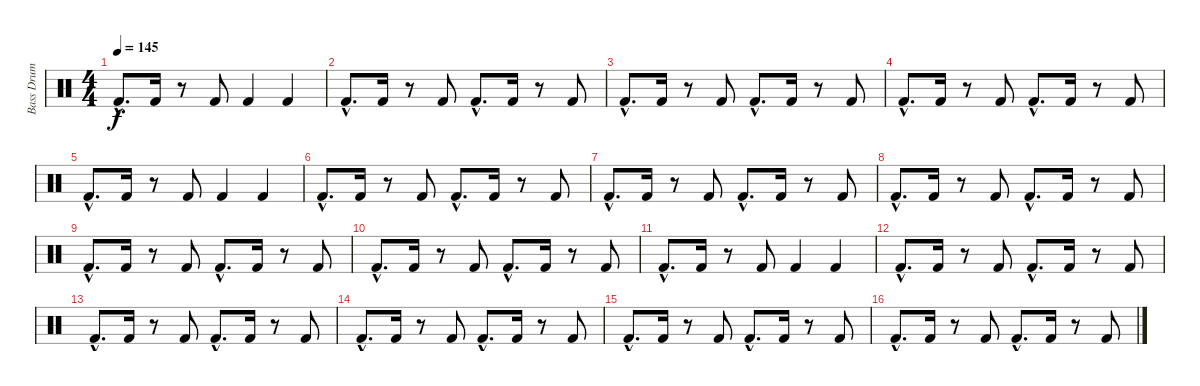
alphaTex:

\track ("Bass Drum" "Bass Drum") {instrument percussion}
\staff {score}
\articulation defaults
\ts (4 4)
\tempo 145
\clef neutral
\ks c "Kick (hit) 2"{hac}.8{d dy f} "Kick (hit) 2".16
r.8 "Kick (hit) 2".8 "Kick (hit) 2".4 "Kick (hit) 2".4 |
"Kick (hit) 2"{hac}.8{d} "Kick (hit) 2".16 r.8 "Kick (hit) 2".8 "Kick (hit) 2"{hac}.8{d} "Kick (hit) 2".16 r.8 "Kick (hit) 2".8 |
"Kick (hit) 2"{hac}.8{d} "Kick (hit) 2".16 r.8 "Kick (hit) 2".8 "Kick (hit) 2"{hac}.8{d} "Kick (hit) 2".16 r.8 "Kick (hit) 2".8 |
"Kick (hit) 2"{hac}.8{d} "Kick (hit) 2".16 r.8 "Kick (hit) 2".8 "Kick (hit) 2"{hac}.8{d} "Kick (hit) 2".16 r.8 "Kick (hit) 2".8 |
"Kick (hit) 2"{hac}.8{d} "Kick (hit) 2".16 r.8 "Kick (hit) 2".8 "Kick (hit) 2".4 "Kick (hit) 2".4 |
"Kick (hit) 2"{hac}.8{d} "Kick (hit) 2".16 r.8 "Kick (hit) 2".8 "Kick (hit) 2"{hac}.8{d} "Kick (hit) 2".16 r.8 "Kick (hit) 2".8 |
"Kick (hit) 2"{hac}.8{d} "Kick (hit) 2".16 r.8 "Kick (hit) 2".8 "Kick (hit) 2"{hac}.8{d} "Kick (hit) 2".16 r.8 "Kick (hit) 2".8 |
"Kick (hit) 2"{hac}.8{d} "Kick (hit) 2".16 r.8 "Kick (hit) 2".8 "Kick (hit) 2"{hac}.8{d} "Kick (hit) 2".16 r.8 "Kick (hit) 2".8 |
"Kick (hit) 2"{hac}.8{d} "Kick (hit) 2".16 r.8 "Kick (hit) 2".8 "Kick (hit) 2"{hac}.8{d} "Kick (hit) 2".16 r.8 "Kick (hit) 2".8 |
"Kick (hit) 2"{hac}.8{d} "Kick (hit) 2".16 r.8 "Kick (hit) 2".8 "Kick (hit) 2"{hac}.8{d} "Kick (hit) 2".16 r.8 "Kick (hit) 2".8 |
"Kick (hit) 2"{hac}.8{d} "Kick (hit) 2".16 r.8 "Kick (hit) 2".8 "Kick (hit) 2".4 "Kick (hit) 2".4 |
"Kick (hit) 2"{hac}.8{d} "Kick (hit) 2".16 r.8 "Kick (hit) 2".8 "Kick (hit) 2"{hac}.8{d} "Kick (hit) 2".16 r.8 "Kick (hit) 2".8 |
"Kick (hit) 2"{hac}.8{d} "Kick (hit) 2".16 r.8 "Kick (hit) 2".8 "Kick (hit) 2"{hac}.8{d} "Kick (hit) 2".16 r.8 "Kick (hit) 2".8 |
"Kick (hit) 2"{hac}.8{d} "Kick (hit) 2".16 r.8 "Kick (hit) 2".8 "Kick (hit) 2"{hac}.8{d} "Kick (hit) 2".16 r.8 "Kick (hit) 2".8 |
"Kick (hit) 2"{hac}.8{d} "Kick (hit) 2".16 r.8 "Kick (hit) 2".8 "Kick (hit) 2"{hac}.8{d} "Kick (hit) 2".16 r.8 "Kick (hit) 2".8 |
"Kick (hit) 2"{hac}.8{d} "Kick (hit) 2".16 r.8 "Kick (hit) 2".8 "Kick (hit) 2"{hac}.8{d} "Kick (hit) 2".16 r.8 "Kick (hit) 2".8
